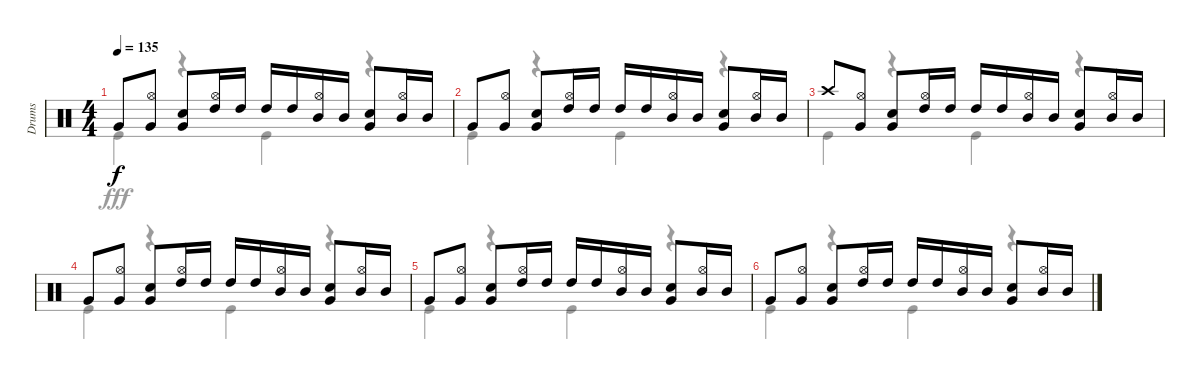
\track ("Drums" "Drums") {instrument percussion}
\staff {score}
\articulation defaults
\voice
\ts (4 4)
\tempo 135
\clef neutral
\ks c "Very Low Tom (hit)".8{dy f}
("Hi-Hat (open)" "Very Low Tom (hit)").8 ("Snare (hit) 2" "Very Low Tom (hit)").8 ("Hi-Hat (open)" "High Tom (hit)").16 "High Tom (hit)".16 "High Tom (hit)".16 "High Tom (hit)".16 ("Hi-Hat (open)" "Mid Tom (hit)").16 "Mid Tom (hit)".16 ("Snare (hit) 2" "Very Low Tom (hit)").8 ("Hi-Hat (open)" "Mid Tom (hit)").16 "Mid Tom (hit)".16 |
"Very Low Tom (hit)".8 ("Hi-Hat (open)" "Very Low Tom (hit)").8 ("Snare (hit) 2" "Very Low Tom (hit)").8 ("Hi-Hat (open)" "High Tom (hit)").16 "High Tom (hit)".16 "High Tom (hit)".16 "High Tom (hit)".16 ("Hi-Hat (open)" "Mid Tom (hit)").16 "Mid Tom (hit)".16 ("Snare (hit) 2" "Very Low Tom (hit)").8 ("Hi-Hat (open)" "Mid Tom (hit)").16 "Mid Tom (hit)".16 |
"Crash high (hit)".8 ("Hi-Hat (open)" "Very Low Tom (hit)").8 ("Snare (hit) 2" "Very Low Tom (hit)").8 ("Hi-Hat (open)" "High Tom (hit)").16 "High Tom (hit)".16 "High Tom (hit)".16 "High Tom (hit)".16 ("Hi-Hat (open)" "Mid Tom (hit)").16 "Mid Tom (hit)".16 ("Snare (hit) 2" "Very Low Tom (hit)").8 ("Hi-Hat (open)" "Mid Tom (hit)").16 "Mid Tom (hit)".16 |
"Very Low Tom (hit)".8 ("Hi-Hat (open)" "Very Low Tom (hit)").8 ("Snare (hit) 2" "Very Low Tom (hit)").8 ("Hi-Hat (open)" "High Tom (hit)").16 "High Tom (hit)".16 "High Tom (hit)".16 "High Tom (hit)".16 ("Hi-Hat (open)" "Mid Tom (hit)").16 "Mid Tom (hit)".16 ("Snare (hit) 2" "Very Low Tom (hit)").8 ("Hi-Hat (open)" "Mid Tom (hit)").16 "Mid Tom (hit)".16 |
"Very Low Tom (hit)".8 ("Hi-Hat (open)" "Very Low Tom (hit)").8 ("Snare (hit) 2" "Very Low Tom (hit)").8 ("Hi-Hat (open)" "High Tom (hit)").16 "High Tom (hit)".16 "High Tom (hit)".16 "High Tom (hit)".16 ("Hi-Hat (open)" "Mid Tom (hit)").16 "Mid Tom (hit)".16 ("Snare (hit) 2" "Very Low Tom (hit)").8 ("Hi-Hat (open)" "Mid Tom (hit)").16 "Mid Tom (hit)".16 |
"Very Low Tom (hit)".8 ("Hi-Hat (open)" "Very Low Tom (hit)").8 ("Snare (hit) 2" "Very Low Tom (hit)").8 ("Hi-Hat (open)" "High Tom (hit)").16 "High Tom (hit)".16 "High Tom (hit)".16 "High Tom (hit)".16 ("Hi-Hat (open)" "Mid Tom (hit)").16 "Mid Tom (hit)".16 ("Snare (hit) 2" "Very Low Tom (hit)").8 ("Hi-Hat (open)" "Mid Tom (hit)").16 "Mid Tom (hit)".16
\voice
\clef neutral
\ottava regular
\simile none
\ks c "Kick (hit)".4{dy fff}
r.4 "Kick (hit)".4 r.4 |
"Kick (hit)".4 r.4 "Kick (hit)".4 r.4 |
"Kick (hit)".4 r.4 "Kick (hit)".4 r.4 |
"Kick (hit)".4 r.4 "Kick (hit)".4 r.4 |
"Kick (hit)".4 r.4 "Kick (hit)".4 r.4 |
"Kick (hit)".4 r.4 "Kick (hit)".4 r.4
